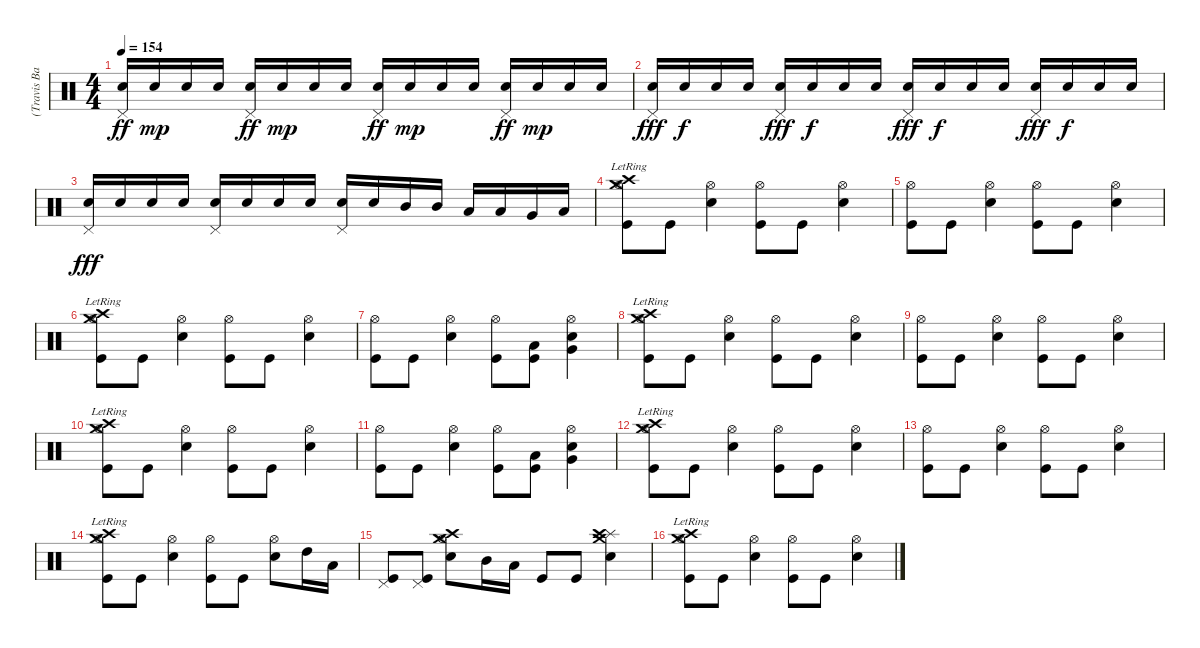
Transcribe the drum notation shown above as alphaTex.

\track ("(Travis Barker) Drums" "(Travis Ba") {instrument percussion}
\staff {score}
\articulation defaults
\ts (4 4)
\tempo 154
\clef neutral
\ks c
("Pedal Hi-Hat (hit)" "Snare (hit) 2").16{dy ff} "Snare (hit) 2".16{dy mp} "Snare (hit) 2".16 "Snare (hit) 2".16 ("Pedal Hi-Hat (hit)" "Snare (hit) 2").16{dy ff} "Snare (hit) 2".16{dy mp} "Snare (hit) 2".16 "Snare (hit) 2".16 ("Pedal Hi-Hat (hit)" "Snare (hit) 2").16{dy ff} "Snare (hit) 2".16{dy mp} "Snare (hit) 2".16 "Snare (hit) 2".16 ("Pedal Hi-Hat (hit)" "Snare (hit) 2").16{dy ff} "Snare (hit) 2".16{dy mp} "Snare (hit) 2".16 "Snare (hit) 2".16 |
("Pedal Hi-Hat (hit)" "Snare (hit) 2").16{dy fff} "Snare (hit) 2".16{dy f} "Snare (hit) 2".16 "Snare (hit) 2".16 ("Pedal Hi-Hat (hit)" "Snare (hit) 2").16{dy fff} "Snare (hit) 2".16{dy f} "Snare (hit) 2".16 "Snare (hit) 2".16 ("Pedal Hi-Hat (hit)" "Snare (hit) 2").16{dy fff} "Snare (hit) 2".16{dy f} "Snare (hit) 2".16 "Snare (hit) 2".16 ("Pedal Hi-Hat (hit)" "Snare (hit) 2").16{dy fff} "Snare (hit) 2".16{dy f} "Snare (hit) 2".16 "Snare (hit) 2".16 |
("Pedal Hi-Hat (hit)" "Snare (hit) 2").16{dy fff} "Snare (hit) 2".16 "Snare (hit) 2".16 "Snare (hit) 2".16 ("Pedal Hi-Hat (hit)" "Snare (hit) 2").16 "Snare (hit) 2".16 "Snare (hit) 2".16 "Snare (hit) 2".16 ("Pedal Hi-Hat (hit)" "Snare (hit) 2").16 "Snare (hit) 2".16 "Mid Tom (hit)".16 "Mid Tom (hit)".16 "Low Tom (hit)".16 "Low Tom (hit)".16 "Very Low Tom (hit)".16 "Low Floor Tom (hit)".16 |
("Crash high (hit)"{lr} "Hi-Hat (open)" "Crash medium (hit)"{lr} "Kick (hit)").8 "Kick (hit)".8 ("Hi-Hat (open)" "Snare (hit) 2").4 ("Hi-Hat (open)" "Kick (hit)").8 "Kick (hit)".8 ("Hi-Hat (open)" "Snare (hit) 2").4 |
("Hi-Hat (open)" "Kick (hit)").8 "Kick (hit)".8 ("Hi-Hat (open)" "Snare (hit) 2").4 ("Hi-Hat (open)" "Kick (hit)").8 "Kick (hit)".8 ("Hi-Hat (open)" "Snare (hit) 2").4 |
("Crash high (hit)"{lr} "Hi-Hat (open)" "Crash medium (hit)"{lr} "Kick (hit)").8 "Kick (hit)".8 ("Hi-Hat (open)" "Snare (hit) 2").4 ("Hi-Hat (open)" "Kick (hit)").8 "Kick (hit)".8 ("Hi-Hat (open)" "Snare (hit) 2").4 |
("Hi-Hat (open)" "Kick (hit)").8 "Kick (hit)".8 ("Hi-Hat (open)" "Snare (hit) 2").4 ("Hi-Hat (open)" "Kick (hit)").8 ("Low Tom (hit)" "Kick (hit)").8 ("Hi-Hat (open)" "Very Low Tom (hit)" "Snare (hit) 2").4 |
("Crash high (hit)"{lr} "Hi-Hat (open)" "Crash medium (hit)"{lr} "Kick (hit)").8 "Kick (hit)".8 ("Hi-Hat (open)" "Snare (hit) 2").4 ("Hi-Hat (open)" "Kick (hit)").8 "Kick (hit)".8 ("Hi-Hat (open)" "Snare (hit) 2").4 |
("Hi-Hat (open)" "Kick (hit)").8 "Kick (hit)".8 ("Hi-Hat (open)" "Snare (hit) 2").4 ("Hi-Hat (open)" "Kick (hit)").8 "Kick (hit)".8 ("Hi-Hat (open)" "Snare (hit) 2").4 |
("Crash high (hit)"{lr} "Hi-Hat (open)" "Crash medium (hit)"{lr} "Kick (hit)").8 "Kick (hit)".8 ("Hi-Hat (open)" "Snare (hit) 2").4 ("Hi-Hat (open)" "Kick (hit)").8 "Kick (hit)".8 ("Hi-Hat (open)" "Snare (hit) 2").4 |
("Hi-Hat (open)" "Kick (hit)").8 "Kick (hit)".8 ("Hi-Hat (open)" "Snare (hit) 2").4 ("Hi-Hat (open)" "Kick (hit)").8 ("Low Tom (hit)" "Kick (hit)").8 ("Hi-Hat (open)" "Very Low Tom (hit)" "Snare (hit) 2").4 |
("Crash high (hit)"{lr} "Hi-Hat (open)" "Crash medium (hit)"{lr} "Kick (hit)").8 "Kick (hit)".8 ("Hi-Hat (open)" "Snare (hit) 2").4 ("Hi-Hat (open)" "Kick (hit)").8 "Kick (hit)".8 ("Hi-Hat (open)" "Snare (hit) 2").4 |
("Hi-Hat (open)" "Kick (hit)").8 "Kick (hit)".8 ("Hi-Hat (open)" "Snare (hit) 2").4 ("Hi-Hat (open)" "Kick (hit)").8 "Kick (hit)".8 ("Hi-Hat (open)" "Snare (hit) 2").4 |
("Crash high (hit)"{lr} "Hi-Hat (open)" "Crash medium (hit)"{lr} "Kick (hit)").8 "Kick (hit)".8 ("Hi-Hat (open)" "Snare (hit) 2").4 ("Hi-Hat (open)" "Kick (hit)").8 "Kick (hit)".8 ("Hi-Hat (open)" "Snare (hit) 2").8 "High Tom (hit)".16 "Low Tom (hit)".16 |
("Pedal Hi-Hat (hit)" "Kick (hit)").8 ("Pedal Hi-Hat (hit)" "Kick (hit)").8 ("Crash high (hit)" "Crash medium (hit)" "Hi-Hat (open)" "Snare (hit) 2").8 "Mid Tom (hit)".16 "Low Tom (hit)".16 "Kick (hit)".8 "Kick (hit)".8 ("Crash medium (hit)" "Splash (hit)" "Crash high (hit)" "Snare (hit) 2").4 |
("Crash high (hit)"{lr} "Hi-Hat (open)" "Crash medium (hit)"{lr} "Kick (hit)").8 "Kick (hit)".8 ("Hi-Hat (open)" "Snare (hit) 2").4 ("Hi-Hat (open)" "Kick (hit)").8 "Kick (hit)".8 ("Hi-Hat (open)" "Snare (hit) 2").4
